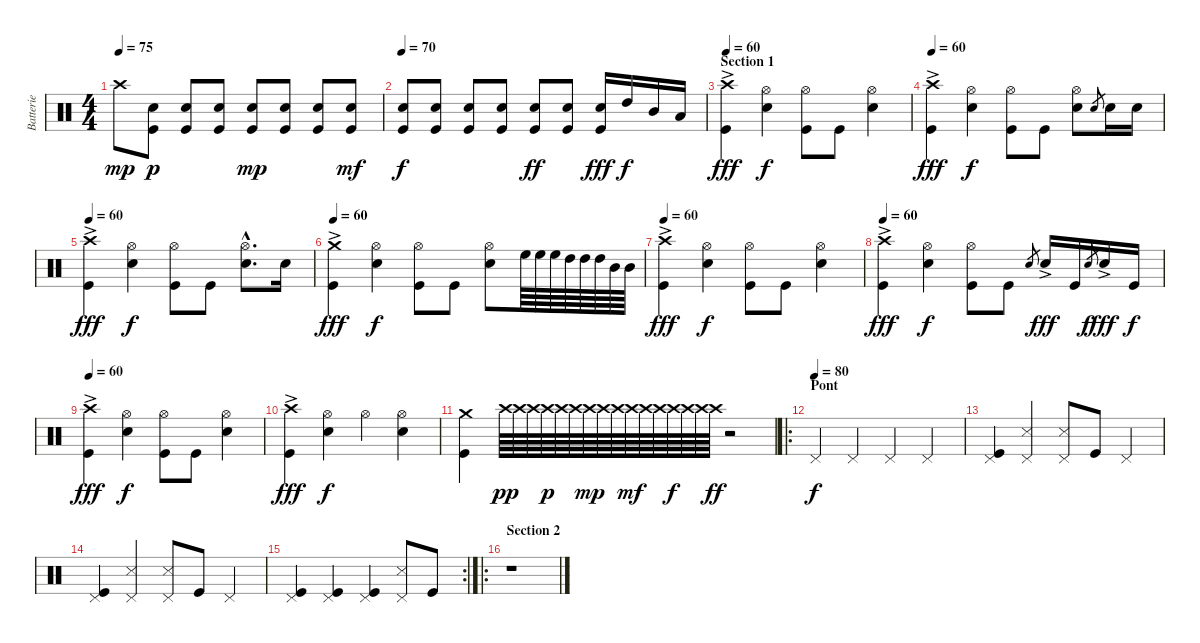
\track ("Batterie" "Batterie") {instrument percussion}
\staff {score}
\articulation defaults
\ts (4 4)
\tempo 75
\clef neutral
\ks c "Crash high (hit)".8{dy mp}
("Snare (hit) 2" "Kick (hit)").8{dy p} ("Snare (hit) 2" "Kick (hit)").8 ("Snare (hit) 2" "Kick (hit)").8 ("Snare (hit) 2" "Kick (hit)").8{dy mp} ("Snare (hit) 2" "Kick (hit)").8 ("Snare (hit) 2" "Kick (hit)").8 ("Snare (hit) 2" "Kick (hit)").8{dy mf} |
\tempo 70
("Snare (hit) 2" "Kick (hit)").8{dy f} ("Snare (hit) 2" "Kick (hit)").8 ("Snare (hit) 2" "Kick (hit)").8 ("Snare (hit) 2" "Kick (hit)").8 ("Snare (hit) 2" "Kick (hit)").8{dy ff} ("Snare (hit) 2" "Kick (hit)").8 ("Snare (hit) 2" "Kick (hit)").16{dy fff} "High Tom (hit)".16{dy f} "Mid Tom (hit)".16 "Low Tom (hit)".16 |
\section ("" "Section 1")
\tempo 60
("Crash high (hit)" "Kick (hit)"{ac}).4{dy fff} ("Hi-Hat (open)" "Snare (hit) 2").4{dy f} ("Hi-Hat (open)" "Kick (hit)").8 "Kick (hit)".8 ("Hi-Hat (open)" "Snare (hit) 2").4 |
\tempo 60
("Crash high (hit)" "Kick (hit)"{ac}).4{dy fff} ("Hi-Hat (open)" "Snare (hit) 2").4{dy f} ("Hi-Hat (open)" "Kick (hit)").8 "Kick (hit)".8 ("Hi-Hat (open)" "Snare (hit) 2").8 "Snare (hit) 2".8{gr} "Snare (hit) 2".16 "Snare (hit) 2".16 |
\tempo 60
("Crash high (hit)" "Kick (hit)"{ac}).4{dy fff} ("Hi-Hat (open)" "Snare (hit) 2").4{dy f} ("Hi-Hat (open)" "Kick (hit)").8 "Kick (hit)".8 ("Hi-Hat (open)"{hac} "Snare (hit) 2"{hac}).8{d} "Snare (hit) 2".16 |
\tempo 60
("Crash medium (hit)" "Kick (hit)"{ac}).4{dy fff} ("Hi-Hat (open)" "Snare (hit) 2").4{dy f} ("Hi-Hat (open)" "Kick (hit)").8 "Kick (hit)".8 ("Hi-Hat (open)" "Snare (hit) 2").8 "High Floor Tom (hit)".64 "High Floor Tom (hit)".64 "High Floor Tom (hit)".64 "High Tom (hit)".64 "High Tom (hit)".64 "High Tom (hit)".64 "Mid Tom (hit)".64 "Mid Tom (hit)".64 |
\tempo 60
("Crash high (hit)" "Kick (hit)"{ac}).4{dy fff} ("Hi-Hat (open)" "Snare (hit) 2").4{dy f} ("Hi-Hat (open)" "Kick (hit)").8 "Kick (hit)".8 ("Hi-Hat (open)" "Snare (hit) 2").4 |
\tempo 60
("Crash high (hit)" "Kick (hit)"{ac}).4{dy fff} ("Hi-Hat (open)" "Snare (hit) 2").4{dy f} ("Hi-Hat (open)" "Kick (hit)").8 "Kick (hit)".8 "Snare (hit) 2".8{gr} "Snare (hit) 2"{ac}.16{dy fff} "Kick (hit)".16 "Snare (hit) 2".8{gr dy f} "Snare (hit) 2"{ac}.16{dy fff} "Kick (hit)".16{dy f} |
\tempo 60
("Crash high (hit)" "Kick (hit)"{ac}).4{dy fff} ("Hi-Hat (open)" "Snare (hit) 2").4{dy f} ("Hi-Hat (open)" "Kick (hit)").8 "Kick (hit)".8 ("Hi-Hat (open)" "Snare (hit) 2").4 |
("Crash high (hit)" "Kick (hit)"{ac}).4{dy fff} ("Hi-Hat (open)" "Snare (hit) 2").4{dy f} "Hi-Hat (open)".4 ("Hi-Hat (open)" "Snare (hit) 2").4 |
("Crash medium (hit)" "Kick (hit)").4 "Crash high (hit)".64{dy pp} "Crash high (hit)".64 "Crash high (hit)".64 "Crash high (hit)".64{dy p} "Crash high (hit)".64 "Crash high (hit)".64 "Crash high (hit)".64{dy mp} "Crash high (hit)".64 "Crash high (hit)".64 "Crash high (hit)".64{dy mf} "Crash high (hit)".64 "Crash high (hit)".64 "Crash high (hit)".64{dy f} "Crash high (hit)".64 "Crash high (hit)".64 "Crash high (hit)".64{dy ff} r.2 |
\ro
\section ("" "Pont")
\tempo (80)
"Pedal Hi-Hat (hit)".4{dy f} "Pedal Hi-Hat (hit)".4 "Pedal Hi-Hat (hit)".4 "Pedal Hi-Hat (hit)".4 |
("Pedal Hi-Hat (hit)" "Kick (hit)").4 ("Pedal Hi-Hat (hit)" "Snare (side stick) 3").4 ("Pedal Hi-Hat (hit)" "Snare (side stick) 3").8 "Kick (hit)".8 "Pedal Hi-Hat (hit)".4 |
("Pedal Hi-Hat (hit)" "Kick (hit)").4 ("Pedal Hi-Hat (hit)" "Snare (side stick) 3").4 ("Pedal Hi-Hat (hit)" "Snare (side stick) 3").8 "Kick (hit)".8 "Pedal Hi-Hat (hit)".4 |
\rc 2
("Pedal Hi-Hat (hit)" "Kick (hit)").4 ("Pedal Hi-Hat (hit)" "Kick (hit)").4 ("Pedal Hi-Hat (hit)" "Kick (hit)").4 ("Pedal Hi-Hat (hit)" "Snare (side stick) 3").8 "Kick (hit)".8 |
\ro
\section ("" "Section 2")
r.1
